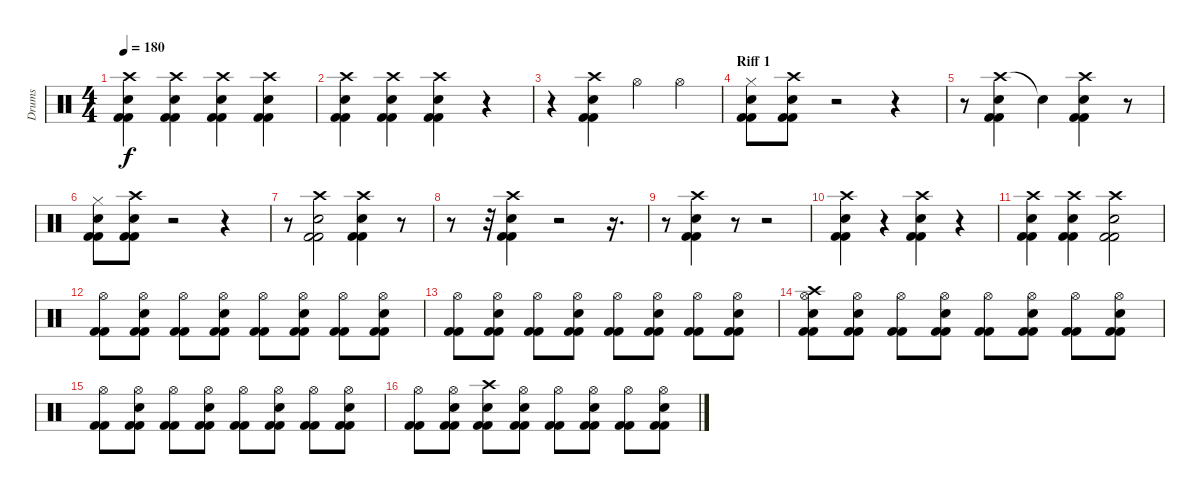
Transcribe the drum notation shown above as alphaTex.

\track ("Drums" "Drums") {instrument percussion}
\staff {score}
\articulation defaults
\ts (4 4)
\tempo 180
\clef neutral
\ks c
("Crash high (hit)" "Snare (hit) 2" "Kick (hit) 2" "Kick (hit) 2").4{dy f} ("Crash high (hit)" "Electric Snare (hit)" "Kick (hit) 2" "Kick (hit) 2").4 ("Crash high (hit)" "Snare (hit) 2" "Kick (hit) 2" "Kick (hit) 2").4 ("Crash high (hit)" "Electric Snare (hit)" "Kick (hit) 2" "Kick (hit) 2").4 |
("Crash high (hit)" "Snare (hit) 2" "Kick (hit) 2" "Kick (hit) 2").4 ("Crash high (hit)" "Electric Snare (hit)" "Kick (hit) 2" "Kick (hit) 2").4 ("Crash high (hit)" "Snare (hit) 2" "Kick (hit) 2" "Kick (hit) 2").4 r.4 |
r.4 ("Crash high (hit)" "Snare (hit) 2" "Kick (hit) 2" "Kick (hit) 2").4 "Hi-Hat (open)".4 "Hi-Hat (open)".4 |
\section ("" "Riff 1")
("Hi-Hat (closed)" "Snare (hit) 2" "Kick (hit) 2" "Kick (hit) 2").8 ("Crash high (hit)" "Snare (hit) 2" "Kick (hit) 2" "Kick (hit) 2").8 r.2 r.4 |
r.8 ("Crash high (hit)" "Snare (hit) 2" "Kick (hit) 2" "Kick (hit) 2").4 "Snare (hit)"{t}.4 ("Crash high (hit)" "Snare (hit) 2" "Kick (hit) 2" "Kick (hit) 2").4 r.8 |
("Hi-Hat (closed)" "Snare (hit) 2" "Kick (hit) 2" "Kick (hit) 2").8 ("Crash high (hit)" "Snare (hit) 2" "Kick (hit) 2" "Kick (hit) 2").8 r.2 r.4 |
r.8 ("Crash high (hit)" "Snare (hit) 2" "Kick (hit) 2" "Kick (hit) 2").2 ("Crash high (hit)" "Snare (hit) 2" "Kick (hit) 2" "Kick (hit) 2").4 r.8 |
r.8 r.32 ("Crash high (hit)" "Snare (hit) 2" "Kick (hit) 2" "Kick (hit) 2").4 r.2 r.16{d} |
r.8 ("Crash high (hit)" "Snare (hit) 2" "Kick (hit) 2" "Kick (hit) 2").4 r.8 r.2 |
("Crash high (hit)" "Snare (hit) 2" "Kick (hit) 2" "Kick (hit) 2").4 r.4 ("Crash high (hit)" "Snare (hit) 2" "Kick (hit) 2" "Kick (hit) 2").4 r.4 |
("Crash high (hit)" "Snare (hit) 2" "Kick (hit) 2" "Kick (hit) 2").4 ("Crash high (hit)" "Snare (hit) 2" "Kick (hit) 2" "Kick (hit) 2").4 ("Crash high (hit)" "Snare (hit) 2" "Kick (hit) 2" "Kick (hit) 2").2 |
("Hi-Hat (open)" "Kick (hit) 2" "Kick (hit) 2").8 ("Hi-Hat (open)" "Snare (hit) 2" "Kick (hit) 2" "Kick (hit) 2").8 ("Hi-Hat (open)" "Kick (hit) 2" "Kick (hit) 2").8 ("Hi-Hat (open)" "Snare (hit) 2" "Kick (hit) 2" "Kick (hit) 2").8 ("Hi-Hat (open)" "Kick (hit) 2" "Kick (hit) 2").8 ("Hi-Hat (open)" "Snare (hit) 2" "Kick (hit) 2" "Kick (hit) 2").8 ("Hi-Hat (open)" "Kick (hit) 2" "Kick (hit) 2").8 ("Hi-Hat (open)" "Snare (hit) 2" "Kick (hit) 2" "Kick (hit) 2").8 |
("Hi-Hat (open)" "Kick (hit) 2" "Kick (hit) 2").8 ("Hi-Hat (open)" "Snare (hit) 2" "Kick (hit) 2" "Kick (hit) 2").8 ("Hi-Hat (open)" "Kick (hit) 2" "Kick (hit) 2").8 ("Hi-Hat (open)" "Snare (hit) 2" "Kick (hit) 2" "Kick (hit) 2").8 ("Hi-Hat (open)" "Kick (hit) 2" "Kick (hit) 2").8 ("Hi-Hat (open)" "Snare (hit) 2" "Kick (hit) 2" "Kick (hit) 2").8 ("Hi-Hat (open)" "Kick (hit) 2" "Kick (hit) 2").8 ("Hi-Hat (open)" "Snare (hit) 2" "Kick (hit) 2" "Kick (hit) 2").8 |
("Hi-Hat (open)" "Crash high (hit)" "Snare (hit)" "Kick (hit) 2" "Kick (hit) 2").8 ("Hi-Hat (open)" "Snare (hit) 2" "Kick (hit) 2" "Kick (hit) 2").8 ("Hi-Hat (open)" "Kick (hit) 2" "Kick (hit) 2").8 ("Hi-Hat (open)" "Snare (hit) 2" "Kick (hit) 2" "Kick (hit) 2").8 ("Hi-Hat (open)" "Kick (hit) 2" "Kick (hit) 2").8 ("Hi-Hat (open)" "Snare (hit) 2" "Kick (hit) 2" "Kick (hit) 2").8 ("Hi-Hat (open)" "Kick (hit) 2" "Kick (hit) 2").8 ("Hi-Hat (open)" "Snare (hit) 2" "Kick (hit) 2" "Kick (hit) 2").8 |
("Hi-Hat (open)" "Kick (hit) 2" "Kick (hit) 2").8 ("Hi-Hat (open)" "Snare (hit) 2" "Kick (hit) 2" "Kick (hit) 2").8 ("Hi-Hat (open)" "Kick (hit) 2" "Kick (hit) 2").8 ("Hi-Hat (open)" "Snare (hit) 2" "Kick (hit) 2" "Kick (hit) 2").8 ("Hi-Hat (open)" "Kick (hit) 2" "Kick (hit) 2").8 ("Hi-Hat (open)" "Snare (hit) 2" "Kick (hit) 2" "Kick (hit) 2").8 ("Hi-Hat (open)" "Kick (hit) 2" "Kick (hit) 2").8 ("Hi-Hat (open)" "Snare (hit) 2" "Kick (hit) 2" "Kick (hit) 2").8 |
("Hi-Hat (open)" "Kick (hit) 2" "Kick (hit) 2").8 ("Hi-Hat (open)" "Snare (hit) 2" "Kick (hit) 2" "Kick (hit) 2").8 ("Crash high (hit)" "Snare (hit)" "Kick (hit) 2" "Kick (hit) 2").8 ("Hi-Hat (open)" "Snare (hit) 2" "Kick (hit) 2" "Kick (hit) 2").8 ("Hi-Hat (open)" "Kick (hit) 2" "Kick (hit) 2").8 ("Hi-Hat (open)" "Snare (hit) 2" "Kick (hit) 2" "Kick (hit) 2").8 ("Hi-Hat (open)" "Kick (hit) 2" "Kick (hit) 2").8 ("Hi-Hat (open)" "Snare (hit) 2" "Kick (hit) 2" "Kick (hit) 2").8
